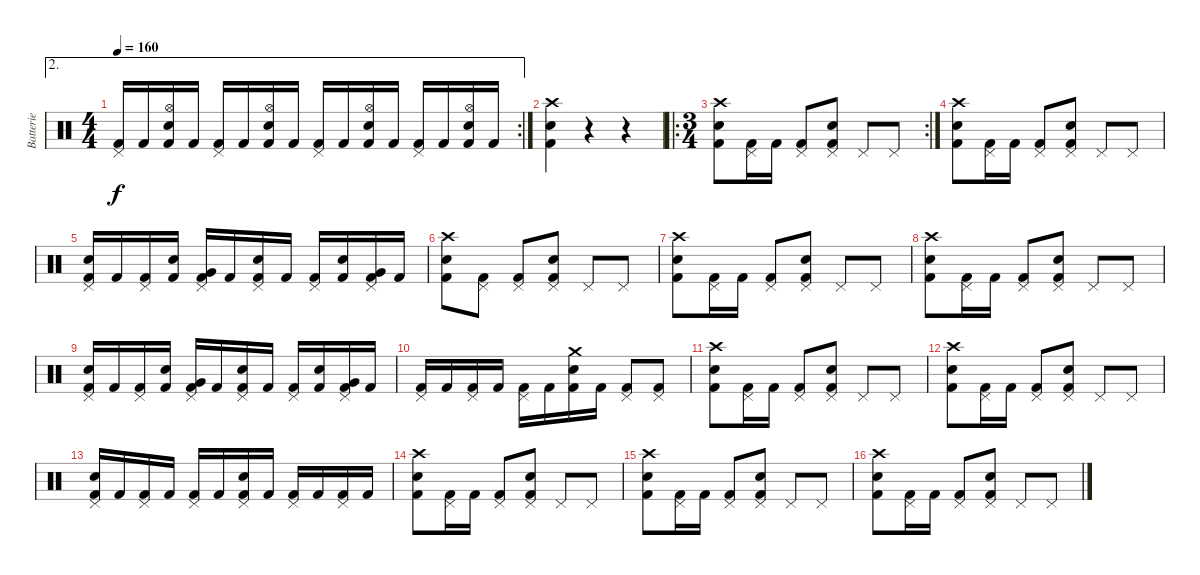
\track ("Batterie" "Batterie") {instrument percussion}
\staff {score}
\articulation defaults
\ae 2
\rc 2
\ts (4 4)
\tempo 160
\clef neutral
\ks c
("Pedal Hi-Hat (hit)" "Kick (hit) 2").16{dy f} "Kick (hit) 2".16 ("Hi-Hat (open)" "Electric Snare (hit)" "Kick (hit) 2").16 "Kick (hit) 2".16 ("Pedal Hi-Hat (hit)" "Kick (hit) 2").16 "Kick (hit) 2".16 ("Hi-Hat (open)" "Electric Snare (hit)" "Kick (hit) 2").16 "Kick (hit) 2".16 ("Pedal Hi-Hat (hit)" "Kick (hit) 2").16 "Kick (hit) 2".16 ("Hi-Hat (open)" "Electric Snare (hit)" "Kick (hit) 2").16 "Kick (hit) 2".16 ("Pedal Hi-Hat (hit)" "Kick (hit) 2").16 "Kick (hit) 2".16 ("Hi-Hat (open)" "Electric Snare (hit)" "Kick (hit) 2").16 "Kick (hit) 2".16 |
("Crash high (hit)" "Electric Snare (hit)" "Kick (hit) 2").4 r.4 r.4 |
\ro
\rc 2
\ts (3 4)
("Crash high (hit)" "Electric Snare (hit)" "Kick (hit) 2").8 ("Pedal Hi-Hat (hit)" "Kick (hit) 2").16 "Kick (hit) 2".16 ("Pedal Hi-Hat (hit)" "Kick (hit) 2").8 ("Pedal Hi-Hat (hit)" "Kick (hit) 2" "Electric Snare (hit)").8 "Pedal Hi-Hat (hit)".8 "Pedal Hi-Hat (hit)".8 |
("Crash high (hit)" "Electric Snare (hit)" "Kick (hit) 2").8 ("Pedal Hi-Hat (hit)" "Kick (hit) 2").16 "Kick (hit) 2".16 ("Pedal Hi-Hat (hit)" "Kick (hit) 2").8 ("Pedal Hi-Hat (hit)" "Kick (hit) 2" "Electric Snare (hit)").8 "Pedal Hi-Hat (hit)".8 "Pedal Hi-Hat (hit)".8 |
("Pedal Hi-Hat (hit)" "Electric Snare (hit)" "Kick (hit) 2").16 "Kick (hit) 2".16 ("Pedal Hi-Hat (hit)" "Kick (hit) 2").16 ("Electric Snare (hit)" "Kick (hit) 2").16 ("Pedal Hi-Hat (hit)" "Very Low Tom (hit)" "Kick (hit) 2").16 "Kick (hit) 2".16 ("Pedal Hi-Hat (hit)" "Electric Snare (hit)" "Kick (hit) 2").16 "Kick (hit) 2".16 ("Pedal Hi-Hat (hit)" "Kick (hit) 2").16 ("Electric Snare (hit)" "Kick (hit) 2").16 ("Pedal Hi-Hat (hit)" "Very Low Tom (hit)" "Kick (hit) 2").16 "Kick (hit) 2".16 |
("Crash high (hit)" "Electric Snare (hit)" "Kick (hit) 2").8 ("Pedal Hi-Hat (hit)" "Kick (hit) 2").8 ("Pedal Hi-Hat (hit)" "Kick (hit) 2").8 ("Pedal Hi-Hat (hit)" "Kick (hit) 2" "Electric Snare (hit)").8 "Pedal Hi-Hat (hit)".8 "Pedal Hi-Hat (hit)".8 |
("Crash high (hit)" "Electric Snare (hit)" "Kick (hit) 2").8 ("Pedal Hi-Hat (hit)" "Kick (hit) 2").16 "Kick (hit) 2".16 ("Pedal Hi-Hat (hit)" "Kick (hit) 2").8 ("Pedal Hi-Hat (hit)" "Kick (hit) 2" "Electric Snare (hit)").8 "Pedal Hi-Hat (hit)".8 "Pedal Hi-Hat (hit)".8 |
("Crash high (hit)" "Electric Snare (hit)" "Kick (hit) 2").8 ("Pedal Hi-Hat (hit)" "Kick (hit) 2").16 "Kick (hit) 2".16 ("Pedal Hi-Hat (hit)" "Kick (hit) 2").8 ("Pedal Hi-Hat (hit)" "Kick (hit) 2" "Electric Snare (hit)").8 "Pedal Hi-Hat (hit)".8 "Pedal Hi-Hat (hit)".8 |
("Pedal Hi-Hat (hit)" "Electric Snare (hit)" "Kick (hit) 2").16 "Kick (hit) 2".16 ("Pedal Hi-Hat (hit)" "Kick (hit) 2").16 ("Electric Snare (hit)" "Kick (hit) 2").16 ("Pedal Hi-Hat (hit)" "Very Low Tom (hit)" "Kick (hit) 2").16 "Kick (hit) 2".16 ("Pedal Hi-Hat (hit)" "Electric Snare (hit)" "Kick (hit) 2").16 "Kick (hit) 2".16 ("Pedal Hi-Hat (hit)" "Kick (hit) 2").16 ("Electric Snare (hit)" "Kick (hit) 2").16 ("Pedal Hi-Hat (hit)" "Very Low Tom (hit)" "Kick (hit) 2").16 "Kick (hit) 2".16 |
("Pedal Hi-Hat (hit)" "Kick (hit) 2").16 "Kick (hit) 2".16 ("Pedal Hi-Hat (hit)" "Kick (hit) 2").16 "Kick (hit) 2".16 ("Pedal Hi-Hat (hit)" "Kick (hit) 2").16 "Kick (hit) 2".16 ("Crash medium (hit)" "Electric Snare (hit)" "Kick (hit) 2").16 "Kick (hit) 2".16 ("Pedal Hi-Hat (hit)" "Kick (hit) 2").8 ("Pedal Hi-Hat (hit)" "Kick (hit) 2").8 |
("Crash high (hit)" "Electric Snare (hit)" "Kick (hit) 2").8 ("Pedal Hi-Hat (hit)" "Kick (hit) 2").16 "Kick (hit) 2".16 ("Pedal Hi-Hat (hit)" "Kick (hit) 2").8 ("Pedal Hi-Hat (hit)" "Kick (hit) 2" "Electric Snare (hit)").8 "Pedal Hi-Hat (hit)".8 "Pedal Hi-Hat (hit)".8 |
("Crash high (hit)" "Electric Snare (hit)" "Kick (hit) 2").8 ("Pedal Hi-Hat (hit)" "Kick (hit) 2").16 "Kick (hit) 2".16 ("Pedal Hi-Hat (hit)" "Kick (hit) 2").8 ("Pedal Hi-Hat (hit)" "Kick (hit) 2" "Electric Snare (hit)").8 "Pedal Hi-Hat (hit)".8 "Pedal Hi-Hat (hit)".8 |
("Pedal Hi-Hat (hit)" "Electric Snare (hit)" "Kick (hit) 2").16 "Kick (hit) 2".16 ("Pedal Hi-Hat (hit)" "Kick (hit) 2").16 "Kick (hit) 2".16 ("Pedal Hi-Hat (hit)" "Kick (hit) 2").16 "Kick (hit) 2".16 ("Pedal Hi-Hat (hit)" "Electric Snare (hit)" "Kick (hit) 2").16 "Kick (hit) 2".16 ("Pedal Hi-Hat (hit)" "Kick (hit) 2").16 "Kick (hit) 2".16 ("Pedal Hi-Hat (hit)" "Kick (hit) 2").16 "Kick (hit) 2".16 |
("Crash high (hit)" "Electric Snare (hit)" "Kick (hit) 2").8 ("Pedal Hi-Hat (hit)" "Kick (hit) 2").16 "Kick (hit) 2".16 ("Pedal Hi-Hat (hit)" "Kick (hit) 2").8 ("Pedal Hi-Hat (hit)" "Kick (hit) 2" "Electric Snare (hit)").8 "Pedal Hi-Hat (hit)".8 "Pedal Hi-Hat (hit)".8 |
("Crash high (hit)" "Electric Snare (hit)" "Kick (hit) 2").8 ("Pedal Hi-Hat (hit)" "Kick (hit) 2").16 "Kick (hit) 2".16 ("Pedal Hi-Hat (hit)" "Kick (hit) 2").8 ("Pedal Hi-Hat (hit)" "Kick (hit) 2" "Electric Snare (hit)").8 "Pedal Hi-Hat (hit)".8 "Pedal Hi-Hat (hit)".8 |
("Crash high (hit)" "Electric Snare (hit)" "Kick (hit) 2").8 ("Pedal Hi-Hat (hit)" "Kick (hit) 2").16 "Kick (hit) 2".16 ("Pedal Hi-Hat (hit)" "Kick (hit) 2").8 ("Pedal Hi-Hat (hit)" "Kick (hit) 2" "Electric Snare (hit)").8 "Pedal Hi-Hat (hit)".8 "Pedal Hi-Hat (hit)".8
